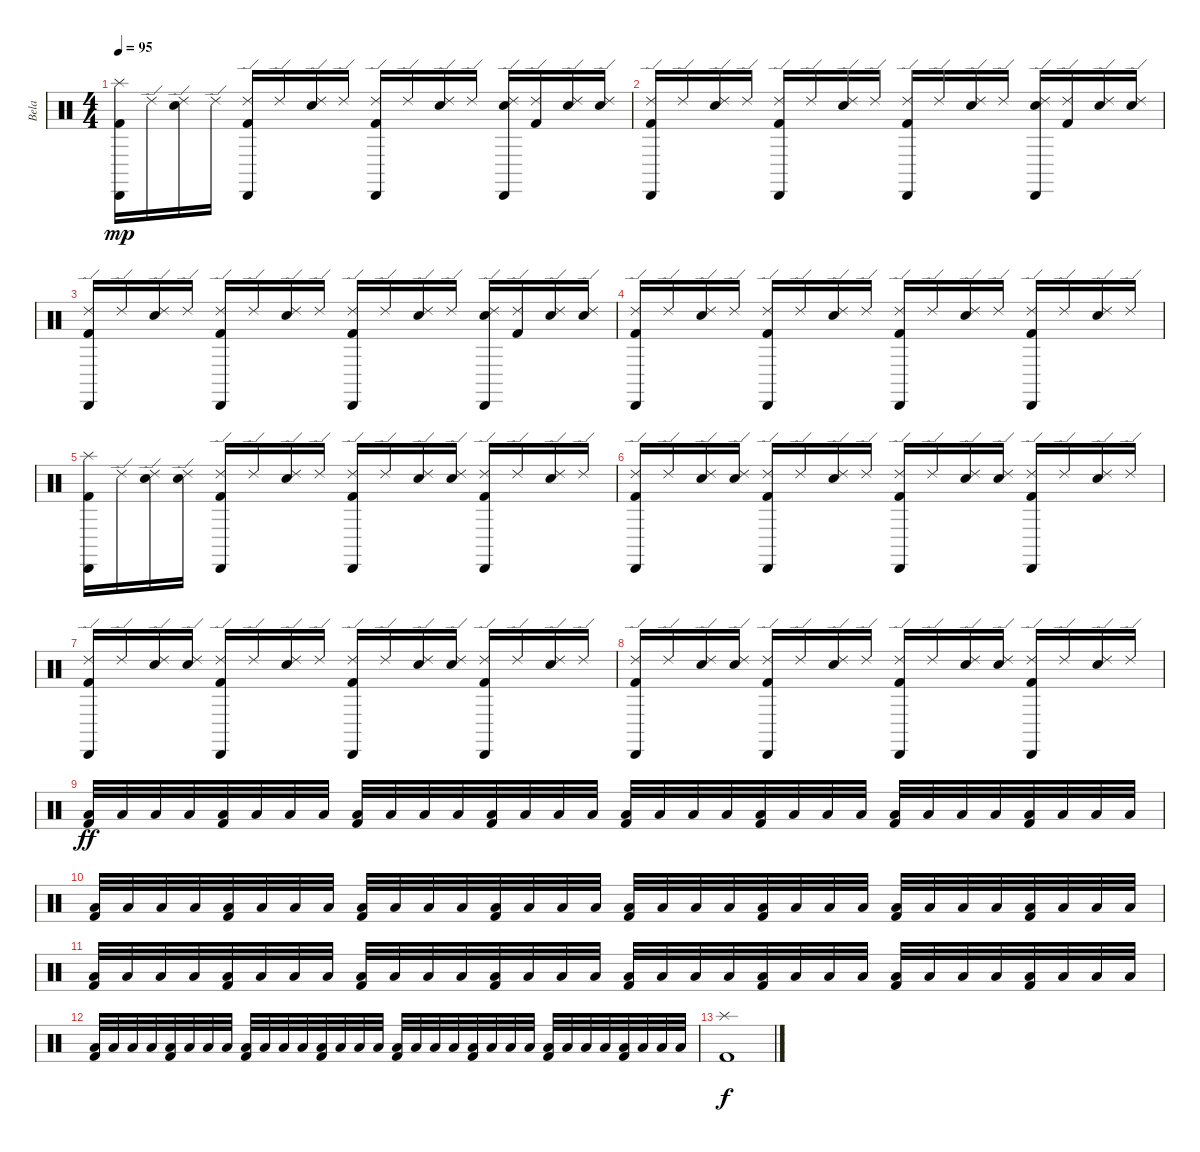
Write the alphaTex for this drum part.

\track ("Bela" "Bela") {instrument percussion}
\staff {score}
\articulation defaults
\ts (4 4)
\tempo 95
\clef neutral
\ks c
("Splash (hit)" "Cabasa (hit)" "Kick (hit) 2").16{dy mp} "Ride (edge) 2".16 ("Ride (edge) 2" "Snare (hit) 2").16 "Ride (edge) 2".16 ("Ride (edge) 2" "Cabasa (hit)" "Kick (hit) 2").16 "Ride (edge) 2".16 ("Ride (edge) 2" "Snare (hit) 2").16 "Ride (edge) 2".16 ("Ride (edge) 2" "Cabasa (hit)" "Kick (hit) 2").16 "Ride (edge) 2".16 ("Ride (edge) 2" "Snare (hit) 2").16 "Ride (edge) 2".16 ("Ride (edge) 2" "Cabasa (hit)" "Snare (hit) 2").16 ("Ride (edge) 2" "Kick (hit) 2").16 ("Ride (edge) 2" "Snare (hit) 2").16 ("Ride (edge) 2" "Snare (hit) 2").16 |
("Ride (edge) 2" "Cabasa (hit)" "Kick (hit) 2").16 "Ride (edge) 2".16 ("Ride (edge) 2" "Snare (hit) 2").16 "Ride (edge) 2".16 ("Ride (edge) 2" "Cabasa (hit)" "Kick (hit) 2").16 "Ride (edge) 2".16 ("Ride (edge) 2" "Snare (hit) 2").16 "Ride (edge) 2".16 ("Ride (edge) 2" "Cabasa (hit)" "Kick (hit) 2").16 "Ride (edge) 2".16 ("Ride (edge) 2" "Snare (hit) 2").16 "Ride (edge) 2".16 ("Ride (edge) 2" "Cabasa (hit)" "Snare (hit) 2").16 ("Ride (edge) 2" "Kick (hit) 2").16 ("Ride (edge) 2" "Snare (hit) 2").16 ("Ride (edge) 2" "Snare (hit) 2").16 |
("Ride (edge) 2" "Cabasa (hit)" "Kick (hit) 2").16 "Ride (edge) 2".16 ("Ride (edge) 2" "Snare (hit) 2").16 "Ride (edge) 2".16 ("Ride (edge) 2" "Cabasa (hit)" "Kick (hit) 2").16 "Ride (edge) 2".16 ("Ride (edge) 2" "Snare (hit) 2").16 "Ride (edge) 2".16 ("Ride (edge) 2" "Cabasa (hit)" "Kick (hit) 2").16 "Ride (edge) 2".16 ("Ride (edge) 2" "Snare (hit) 2").16 "Ride (edge) 2".16 ("Ride (edge) 2" "Cabasa (hit)" "Snare (hit) 2").16 ("Ride (edge) 2" "Kick (hit) 2").16 ("Ride (edge) 2" "Snare (hit) 2").16 ("Ride (edge) 2" "Snare (hit) 2").16 |
("Ride (edge) 2" "Cabasa (hit)" "Kick (hit) 2").16 "Ride (edge) 2".16 ("Ride (edge) 2" "Snare (hit) 2").16 "Ride (edge) 2".16 ("Ride (edge) 2" "Cabasa (hit)" "Kick (hit) 2").16 "Ride (edge) 2".16 ("Ride (edge) 2" "Snare (hit) 2").16 "Ride (edge) 2".16 ("Ride (edge) 2" "Cabasa (hit)" "Kick (hit) 2").16 "Ride (edge) 2".16 ("Ride (edge) 2" "Snare (hit) 2").16 "Ride (edge) 2".16 ("Ride (edge) 2" "Cabasa (hit)" "Kick (hit) 2").16 "Ride (edge) 2".16 ("Ride (edge) 2" "Snare (hit) 2").16 "Ride (edge) 2".16 |
("Splash (hit)" "Cabasa (hit)" "Kick (hit) 2").16 "Ride (edge) 2".16 ("Ride (edge) 2" "Snare (hit) 2").16 ("Ride (edge) 2" "Snare (hit) 2").16 ("Ride (edge) 2" "Cabasa (hit)" "Kick (hit) 2").16 "Ride (edge) 2".16 ("Ride (edge) 2" "Snare (hit) 2").16 "Ride (edge) 2".16 ("Ride (edge) 2" "Cabasa (hit)" "Kick (hit) 2").16 "Ride (edge) 2".16 ("Ride (edge) 2" "Snare (hit) 2").16 ("Ride (edge) 2" "Snare (hit) 2").16 ("Ride (edge) 2" "Cabasa (hit)" "Kick (hit) 2").16 "Ride (edge) 2".16 ("Ride (edge) 2" "Snare (hit) 2").16 "Ride (edge) 2".16 |
("Ride (edge) 2" "Cabasa (hit)" "Kick (hit) 2").16 "Ride (edge) 2".16 ("Ride (edge) 2" "Snare (hit) 2").16 ("Ride (edge) 2" "Snare (hit) 2").16 ("Ride (edge) 2" "Cabasa (hit)" "Kick (hit) 2").16 "Ride (edge) 2".16 ("Ride (edge) 2" "Snare (hit) 2").16 "Ride (edge) 2".16 ("Ride (edge) 2" "Cabasa (hit)" "Kick (hit) 2").16 "Ride (edge) 2".16 ("Ride (edge) 2" "Snare (hit) 2").16 ("Ride (edge) 2" "Snare (hit) 2").16 ("Ride (edge) 2" "Cabasa (hit)" "Kick (hit) 2").16 "Ride (edge) 2".16 ("Ride (edge) 2" "Snare (hit) 2").16 "Ride (edge) 2".16 |
("Ride (edge) 2" "Cabasa (hit)" "Kick (hit) 2").16 "Ride (edge) 2".16 ("Ride (edge) 2" "Snare (hit) 2").16 ("Ride (edge) 2" "Snare (hit) 2").16 ("Ride (edge) 2" "Cabasa (hit)" "Kick (hit) 2").16 "Ride (edge) 2".16 ("Ride (edge) 2" "Snare (hit) 2").16 "Ride (edge) 2".16 ("Ride (edge) 2" "Cabasa (hit)" "Kick (hit) 2").16 "Ride (edge) 2".16 ("Ride (edge) 2" "Snare (hit) 2").16 ("Ride (edge) 2" "Snare (hit) 2").16 ("Ride (edge) 2" "Cabasa (hit)" "Kick (hit) 2").16 "Ride (edge) 2".16 ("Ride (edge) 2" "Snare (hit) 2").16 "Ride (edge) 2".16 |
("Ride (edge) 2" "Cabasa (hit)" "Kick (hit) 2").16 "Ride (edge) 2".16 ("Ride (edge) 2" "Snare (hit) 2").16 ("Ride (edge) 2" "Snare (hit) 2").16 ("Ride (edge) 2" "Cabasa (hit)" "Kick (hit) 2").16 "Ride (edge) 2".16 ("Ride (edge) 2" "Snare (hit) 2").16 "Ride (edge) 2".16 ("Ride (edge) 2" "Cabasa (hit)" "Kick (hit) 2").16 "Ride (edge) 2".16 ("Ride (edge) 2" "Snare (hit) 2").16 ("Ride (edge) 2" "Snare (hit) 2").16 ("Ride (edge) 2" "Cabasa (hit)" "Kick (hit) 2").16 "Ride (edge) 2".16 ("Ride (edge) 2" "Snare (hit) 2").16 "Ride (edge) 2".16 |
("Low Floor Tom (hit)" "Kick (hit) 2").32{dy ff} "Low Floor Tom (hit)".32 "Low Floor Tom (hit)".32 "Low Floor Tom (hit)".32 ("Low Floor Tom (hit)" "Kick (hit) 2").32 "Low Floor Tom (hit)".32 "Low Floor Tom (hit)".32 "Low Floor Tom (hit)".32 ("Low Floor Tom (hit)" "Kick (hit) 2").32 "Low Floor Tom (hit)".32 "Low Floor Tom (hit)".32 "Low Floor Tom (hit)".32 ("Low Floor Tom (hit)" "Kick (hit) 2").32 "Low Floor Tom (hit)".32 "Low Floor Tom (hit)".32 "Low Floor Tom (hit)".32 ("Low Floor Tom (hit)" "Kick (hit) 2").32 "Low Floor Tom (hit)".32 "Low Floor Tom (hit)".32 "Low Floor Tom (hit)".32 ("Low Floor Tom (hit)" "Kick (hit) 2").32 "Low Floor Tom (hit)".32 "Low Floor Tom (hit)".32 "Low Floor Tom (hit)".32 ("Low Floor Tom (hit)" "Kick (hit) 2").32 "Low Floor Tom (hit)".32 "Low Floor Tom (hit)".32 "Low Floor Tom (hit)".32 ("Low Floor Tom (hit)" "Kick (hit) 2").32 "Low Floor Tom (hit)".32 "Low Floor Tom (hit)".32 "Low Floor Tom (hit)".32 |
("Low Floor Tom (hit)" "Kick (hit) 2").32 "Low Floor Tom (hit)".32 "Low Floor Tom (hit)".32 "Low Floor Tom (hit)".32 ("Low Floor Tom (hit)" "Kick (hit) 2").32 "Low Floor Tom (hit)".32 "Low Floor Tom (hit)".32 "Low Floor Tom (hit)".32 ("Low Floor Tom (hit)" "Kick (hit) 2").32 "Low Floor Tom (hit)".32 "Low Floor Tom (hit)".32 "Low Floor Tom (hit)".32 ("Low Floor Tom (hit)" "Kick (hit) 2").32 "Low Floor Tom (hit)".32 "Low Floor Tom (hit)".32 "Low Floor Tom (hit)".32 ("Low Floor Tom (hit)" "Kick (hit) 2").32 "Low Floor Tom (hit)".32 "Low Floor Tom (hit)".32 "Low Floor Tom (hit)".32 ("Low Floor Tom (hit)" "Kick (hit) 2").32 "Low Floor Tom (hit)".32 "Low Floor Tom (hit)".32 "Low Floor Tom (hit)".32 ("Low Floor Tom (hit)" "Kick (hit) 2").32 "Low Floor Tom (hit)".32 "Low Floor Tom (hit)".32 "Low Floor Tom (hit)".32 ("Low Floor Tom (hit)" "Kick (hit) 2").32 "Low Floor Tom (hit)".32 "Low Floor Tom (hit)".32 "Low Floor Tom (hit)".32 |
("Low Floor Tom (hit)" "Kick (hit) 2").32 "Low Floor Tom (hit)".32 "Low Floor Tom (hit)".32 "Low Floor Tom (hit)".32 ("Low Floor Tom (hit)" "Kick (hit) 2").32 "Low Floor Tom (hit)".32 "Low Floor Tom (hit)".32 "Low Floor Tom (hit)".32 ("Low Floor Tom (hit)" "Kick (hit) 2").32 "Low Floor Tom (hit)".32 "Low Floor Tom (hit)".32 "Low Floor Tom (hit)".32 ("Low Floor Tom (hit)" "Kick (hit) 2").32 "Low Floor Tom (hit)".32 "Low Floor Tom (hit)".32 "Low Floor Tom (hit)".32 ("Low Floor Tom (hit)" "Kick (hit) 2").32 "Low Floor Tom (hit)".32 "Low Floor Tom (hit)".32 "Low Floor Tom (hit)".32 ("Low Floor Tom (hit)" "Kick (hit) 2").32 "Low Floor Tom (hit)".32 "Low Floor Tom (hit)".32 "Low Floor Tom (hit)".32 ("Low Floor Tom (hit)" "Kick (hit) 2").32 "Low Floor Tom (hit)".32 "Low Floor Tom (hit)".32 "Low Floor Tom (hit)".32 ("Low Floor Tom (hit)" "Kick (hit) 2").32 "Low Floor Tom (hit)".32 "Low Floor Tom (hit)".32 "Low Floor Tom (hit)".32 |
("Low Floor Tom (hit)" "Kick (hit) 2").32 "Low Floor Tom (hit)".32 "Low Floor Tom (hit)".32 "Low Floor Tom (hit)".32 ("Low Floor Tom (hit)" "Kick (hit) 2").32 "Low Floor Tom (hit)".32 "Low Floor Tom (hit)".32 "Low Floor Tom (hit)".32 ("Low Floor Tom (hit)" "Kick (hit) 2").32 "Low Floor Tom (hit)".32 "Low Floor Tom (hit)".32 "Low Floor Tom (hit)".32 ("Low Floor Tom (hit)" "Kick (hit) 2").32 "Low Floor Tom (hit)".32 "Low Floor Tom (hit)".32 "Low Floor Tom (hit)".32 ("Low Floor Tom (hit)" "Kick (hit) 2").32 "Low Floor Tom (hit)".32 "Low Floor Tom (hit)".32 "Low Floor Tom (hit)".32 ("Low Floor Tom (hit)" "Kick (hit) 2").32 "Low Floor Tom (hit)".32 "Low Floor Tom (hit)".32 "Low Floor Tom (hit)".32 ("Low Floor Tom (hit)" "Kick (hit) 2").32 "Low Floor Tom (hit)".32 "Low Floor Tom (hit)".32 "Low Floor Tom (hit)".32 ("Low Floor Tom (hit)" "Kick (hit) 2").32 "Low Floor Tom (hit)".32 "Low Floor Tom (hit)".32 "Low Floor Tom (hit)".32 |
("Splash (hit)" "Kick (hit) 2").1{dy f}
